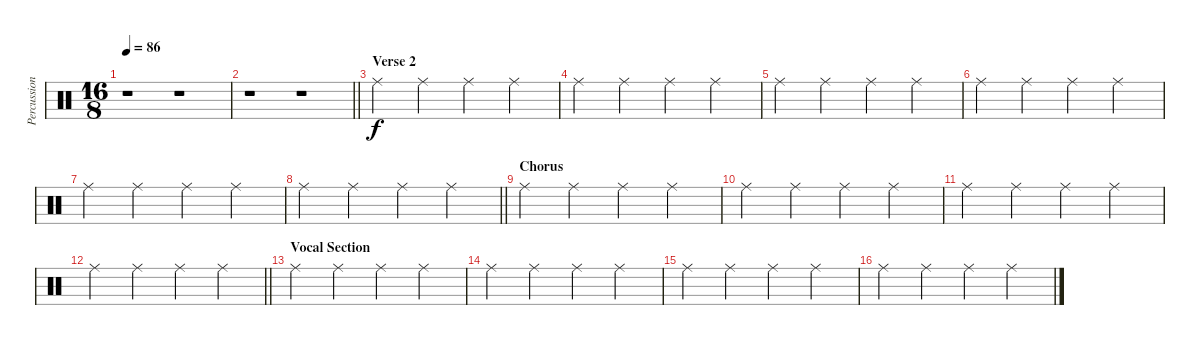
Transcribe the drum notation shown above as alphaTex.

\track ("Percussion" "Percussion") {instrument percussion}
\staff {score}
\articulation defaults
\ts (16 8)
\tempo 86
\clef neutral
\ks c
r.1{dy f} r.1 |
\barLineRight lightlight
r.1 r.1 |
\section ("" "Verse 2")
"Ride (middle)".2 "Ride (middle)".2 "Ride (middle)".2 "Ride (middle)".2 |
"Ride (middle)".2 "Ride (middle)".2 "Ride (middle)".2 "Ride (middle)".2 |
"Ride (middle)".2 "Ride (middle)".2 "Ride (middle)".2 "Ride (middle)".2 |
"Ride (middle)".2 "Ride (middle)".2 "Ride (middle)".2 "Ride (middle)".2 |
"Ride (middle)".2 "Ride (middle)".2 "Ride (middle)".2 "Ride (middle)".2 |
\barLineRight lightlight "Ride (middle)".2 "Ride (middle)".2 "Ride (middle)".2 "Ride (middle)".2
|
\section ("" "Chorus")
"Ride (middle)".2 "Ride (middle)".2 "Ride (middle)".2 "Ride (middle)".2 |
"Ride (middle)".2 "Ride (middle)".2 "Ride (middle)".2 "Ride (middle)".2 |
"Ride (middle)".2 "Ride (middle)".2 "Ride (middle)".2 "Ride (middle)".2 |
\barLineRight lightlight "Ride (middle)".2 "Ride (middle)".2 "Ride (middle)".2 "Ride (middle)".2
|
\section ("" "Vocal Section")
"Ride (middle)".2 "Ride (middle)".2 "Ride (middle)".2 "Ride (middle)".2 |
"Ride (middle)".2 "Ride (middle)".2 "Ride (middle)".2 "Ride (middle)".2 |
"Ride (middle)".2 "Ride (middle)".2 "Ride (middle)".2 "Ride (middle)".2 |
"Ride (middle)".2 "Ride (middle)".2 "Ride (middle)".2 "Ride (middle)".2
